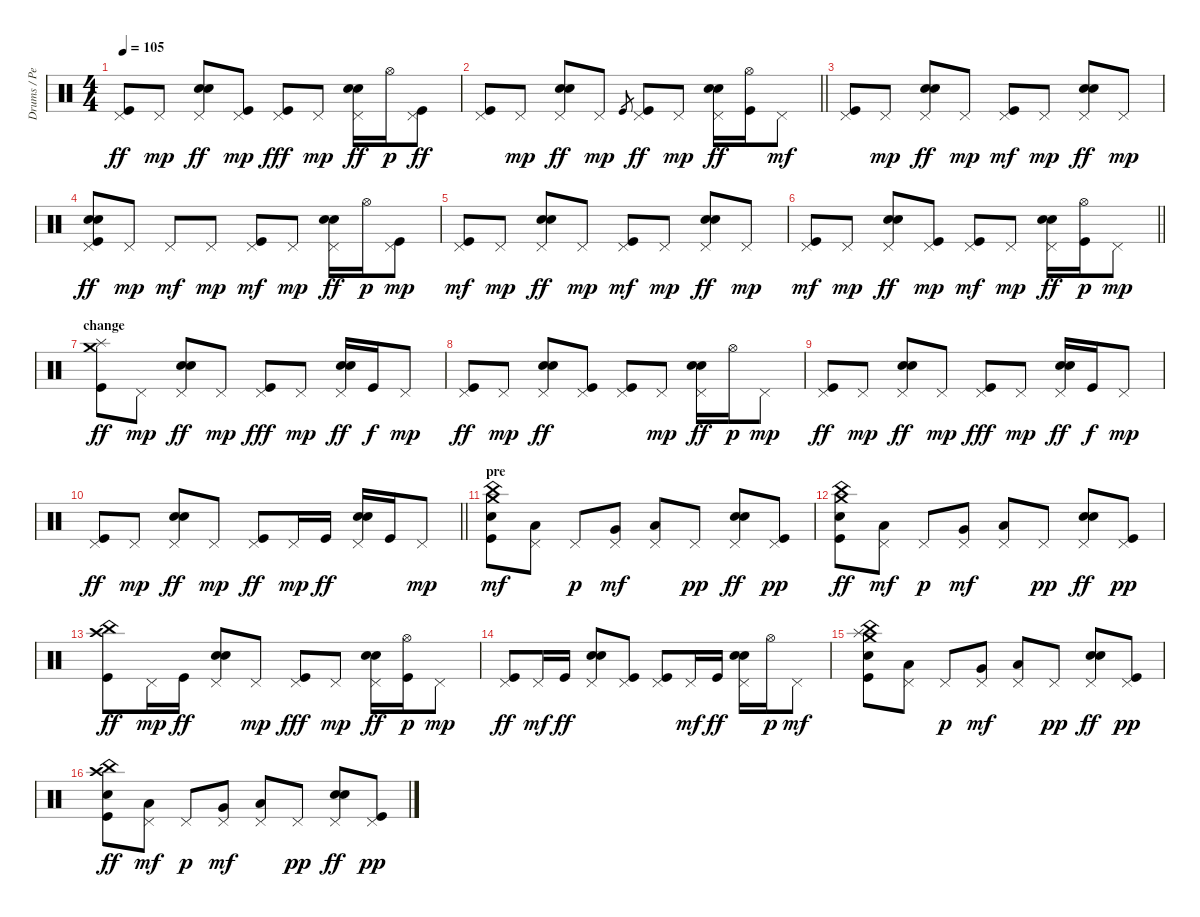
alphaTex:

\track ("Drums / Percussion" "Drums / Pe") {instrument percussion}
\staff {score}
\articulation defaults
\ts (4 4)
\tempo 105
\clef neutral
\ks c
("Pedal Hi-Hat (hit)" "Kick (hit)").8{dy ff} "Pedal Hi-Hat (hit)".8{dy mp} ("Pedal Hi-Hat (hit)" "Electric Snare (hit)" "Snare (hit) 2").8{dy ff} ("Pedal Hi-Hat (hit)" "Kick (hit)").8{dy mp} ("Pedal Hi-Hat (hit)" "Kick (hit)").8{dy fff} "Pedal Hi-Hat (hit)".8{dy mp} ("Pedal Hi-Hat (hit)" "Electric Snare (hit)" "Snare (hit) 2").16{dy ff} "Hi-Hat (open)".16{dy p} ("Pedal Hi-Hat (hit)" "Kick (hit)").8{dy ff} |
\barLineRight lightlight
("Pedal Hi-Hat (hit)" "Kick (hit)").8 "Pedal Hi-Hat (hit)".8{dy mp} ("Pedal Hi-Hat (hit)" "Electric Snare (hit)" "Snare (hit) 2").8{dy ff} "Pedal Hi-Hat (hit)".8{dy mp} "Kick (hit)".8{gr} ("Pedal Hi-Hat (hit)" "Kick (hit)").8{dy ff} "Pedal Hi-Hat (hit)".8{dy mp} ("Pedal Hi-Hat (hit)" "Electric Snare (hit)" "Snare (hit) 2").16{dy ff} ("Hi-Hat (open)" "Kick (hit)").16 "Pedal Hi-Hat (hit)".8{dy mf} |
\section ("" "")
("Pedal Hi-Hat (hit)" "Kick (hit)").8 "Pedal Hi-Hat (hit)".8{dy mp} ("Pedal Hi-Hat (hit)" "Electric Snare (hit)" "Snare (hit) 2").8{dy ff} "Pedal Hi-Hat (hit)".8{dy mp} ("Pedal Hi-Hat (hit)" "Kick (hit)").8{dy mf} "Pedal Hi-Hat (hit)".8{dy mp} ("Pedal Hi-Hat (hit)" "Electric Snare (hit)" "Snare (hit) 2").8{dy ff} "Pedal Hi-Hat (hit)".8{dy mp} |
("Pedal Hi-Hat (hit)" "Electric Snare (hit)" "Snare (hit) 2" "Kick (hit)").8{dy ff} "Pedal Hi-Hat (hit)".8{dy mp} "Pedal Hi-Hat (hit)".8{dy mf} "Pedal Hi-Hat (hit)".8{dy mp} ("Pedal Hi-Hat (hit)" "Kick (hit)").8{dy mf} "Pedal Hi-Hat (hit)".8{dy mp} ("Pedal Hi-Hat (hit)" "Electric Snare (hit)" "Snare (hit) 2").16{dy ff} "Hi-Hat (open)".16{dy p} ("Pedal Hi-Hat (hit)" "Kick (hit)").8{dy mp} |
("Pedal Hi-Hat (hit)" "Kick (hit)").8{dy mf} "Pedal Hi-Hat (hit)".8{dy mp} ("Pedal Hi-Hat (hit)" "Electric Snare (hit)" "Snare (hit) 2").8{dy ff} "Pedal Hi-Hat (hit)".8{dy mp} ("Pedal Hi-Hat (hit)" "Kick (hit)").8{dy mf} "Pedal Hi-Hat (hit)".8{dy mp} ("Pedal Hi-Hat (hit)" "Electric Snare (hit)" "Snare (hit) 2").8{dy ff} "Pedal Hi-Hat (hit)".8{dy mp} |
\barLineRight lightlight
("Pedal Hi-Hat (hit)" "Kick (hit)").8{dy mf} "Pedal Hi-Hat (hit)".8{dy mp} ("Pedal Hi-Hat (hit)" "Electric Snare (hit)" "Snare (hit) 2").8{dy ff} ("Pedal Hi-Hat (hit)" "Kick (hit)").8{dy mp} ("Pedal Hi-Hat (hit)" "Kick (hit)").8{dy mf} "Pedal Hi-Hat (hit)".8{dy mp} ("Pedal Hi-Hat (hit)" "Electric Snare (hit)" "Snare (hit) 2").16{dy ff} ("Hi-Hat (open)" "Kick (hit)").16{dy p} "Pedal Hi-Hat (hit)".8{dy mp} |
\section ("" "change")
("Splash (hit)" "Crash medium (hit)" "Kick (hit)").8{dy ff} "Pedal Hi-Hat (hit)".8{dy mp} ("Pedal Hi-Hat (hit)" "Electric Snare (hit)" "Snare (hit) 2").8{dy ff} "Pedal Hi-Hat (hit)".8{dy mp} ("Pedal Hi-Hat (hit)" "Kick (hit)").8{dy fff} "Pedal Hi-Hat (hit)".8{dy mp} ("Pedal Hi-Hat (hit)" "Electric Snare (hit)" "Snare (hit) 2").16{dy ff} "Kick (hit)".16{dy f} "Pedal Hi-Hat (hit)".8{dy mp} |
("Pedal Hi-Hat (hit)" "Kick (hit)").8{dy ff} "Pedal Hi-Hat (hit)".8{dy mp} ("Pedal Hi-Hat (hit)" "Electric Snare (hit)" "Snare (hit) 2").8{dy ff} ("Pedal Hi-Hat (hit)" "Kick (hit)").8 ("Pedal Hi-Hat (hit)" "Kick (hit)").8 "Pedal Hi-Hat (hit)".8{dy mp} ("Pedal Hi-Hat (hit)" "Electric Snare (hit)" "Snare (hit) 2").16{dy ff} "Hi-Hat (open)".16{dy p} "Pedal Hi-Hat (hit)".8{dy mp} |
("Pedal Hi-Hat (hit)" "Kick (hit)").8{dy ff} "Pedal Hi-Hat (hit)".8{dy mp} ("Pedal Hi-Hat (hit)" "Electric Snare (hit)" "Snare (hit) 2").8{dy ff} "Pedal Hi-Hat (hit)".8{dy mp} ("Pedal Hi-Hat (hit)" "Kick (hit)").8{dy fff} "Pedal Hi-Hat (hit)".8{dy mp} ("Pedal Hi-Hat (hit)" "Electric Snare (hit)" "Snare (hit) 2").16{dy ff} "Kick (hit)".16{dy f} "Pedal Hi-Hat (hit)".8{dy mp} |
\barLineRight lightlight
("Pedal Hi-Hat (hit)" "Kick (hit)").8{dy ff} "Pedal Hi-Hat (hit)".8{dy mp} ("Pedal Hi-Hat (hit)" "Electric Snare (hit)" "Snare (hit) 2").8{dy ff} "Pedal Hi-Hat (hit)".8{dy mp} ("Pedal Hi-Hat (hit)" "Kick (hit)").8{dy ff} "Pedal Hi-Hat (hit)".16{dy mp} "Kick (hit)".16{dy ff} ("Pedal Hi-Hat (hit)" "Electric Snare (hit)" "Snare (hit) 2").16 "Kick (hit)".16 "Pedal Hi-Hat (hit)".8{dy mp} |
\section ("" "pre")
("Crash medium (hit)" "Electric Snare (hit)" "China (hit)" "Kick (hit)").8{dy mf} ("Pedal Hi-Hat (hit)" "Low Tom (hit)").8 "Pedal Hi-Hat (hit)".8{dy p} ("Pedal Hi-Hat (hit)" "Very Low Tom (hit)").8{dy mf} ("Pedal Hi-Hat (hit)" "Low Floor Tom (hit)").8 "Pedal Hi-Hat (hit)".8{dy pp} ("Pedal Hi-Hat (hit)" "Electric Snare (hit)" "Snare (hit) 2").8{dy ff} ("Pedal Hi-Hat (hit)" "Kick (hit)").8{dy pp} |
("China (hit)" "Crash medium (hit)" "Electric Snare (hit)" "Kick (hit)").8{dy ff} ("Pedal Hi-Hat (hit)" "Low Tom (hit)").8{dy mf} "Pedal Hi-Hat (hit)".8{dy p} ("Pedal Hi-Hat (hit)" "Very Low Tom (hit)").8{dy mf} ("Pedal Hi-Hat (hit)" "Low Floor Tom (hit)").8 "Pedal Hi-Hat (hit)".8{dy pp} ("Pedal Hi-Hat (hit)" "Electric Snare (hit)" "Snare (hit) 2").8{dy ff} ("Pedal Hi-Hat (hit)" "Kick (hit)").8{dy pp} |
("China (hit)" "Crash high (hit)" "Kick (hit)").8{dy ff} "Pedal Hi-Hat (hit)".16{dy mp} "Kick (hit)".16{dy ff} ("Pedal Hi-Hat (hit)" "Electric Snare (hit)" "Snare (hit) 2").8 "Pedal Hi-Hat (hit)".8{dy mp} ("Pedal Hi-Hat (hit)" "Kick (hit)").8{dy fff} "Pedal Hi-Hat (hit)".8{dy mp} ("Pedal Hi-Hat (hit)" "Electric Snare (hit)" "Snare (hit) 2").16{dy ff} ("Hi-Hat (open)" "Kick (hit)").16{dy p} "Pedal Hi-Hat (hit)".8{dy mp} |
("Pedal Hi-Hat (hit)" "Kick (hit)").8{dy ff} "Pedal Hi-Hat (hit)".16{dy mf} "Kick (hit)".16{dy ff} ("Pedal Hi-Hat (hit)" "Electric Snare (hit)" "Snare (hit) 2").8 ("Pedal Hi-Hat (hit)" "Kick (hit)").8 ("Pedal Hi-Hat (hit)" "Kick (hit)").8 "Pedal Hi-Hat (hit)".16{dy mf} "Kick (hit)".16{dy ff} ("Pedal Hi-Hat (hit)" "Electric Snare (hit)" "Snare (hit) 2").16 "Hi-Hat (open)".16{dy p} "Pedal Hi-Hat (hit)".8{dy mf} |
("Crash medium (hit)" "Splash (hit)" "China (hit)" "Electric Snare (hit)" "Kick (hit)").8 ("Pedal Hi-Hat (hit)" "Low Tom (hit)").8 "Pedal Hi-Hat (hit)".8{dy p} ("Pedal Hi-Hat (hit)" "Very Low Tom (hit)").8{dy mf} ("Pedal Hi-Hat (hit)" "Low Floor Tom (hit)").8 "Pedal Hi-Hat (hit)".8{dy pp} ("Pedal Hi-Hat (hit)" "Electric Snare (hit)" "Snare (hit) 2").8{dy ff} ("Pedal Hi-Hat (hit)" "Kick (hit)").8{dy pp} |
("China (hit)" "Crash high (hit)" "Electric Snare (hit)" "Kick (hit)").8{dy ff} ("Pedal Hi-Hat (hit)" "Low Tom (hit)").8{dy mf} "Pedal Hi-Hat (hit)".8{dy p} ("Pedal Hi-Hat (hit)" "Very Low Tom (hit)").8{dy mf} ("Pedal Hi-Hat (hit)" "Low Floor Tom (hit)").8 "Pedal Hi-Hat (hit)".8{dy pp} ("Pedal Hi-Hat (hit)" "Electric Snare (hit)" "Snare (hit) 2").8{dy ff} ("Pedal Hi-Hat (hit)" "Kick (hit)").8{dy pp}
